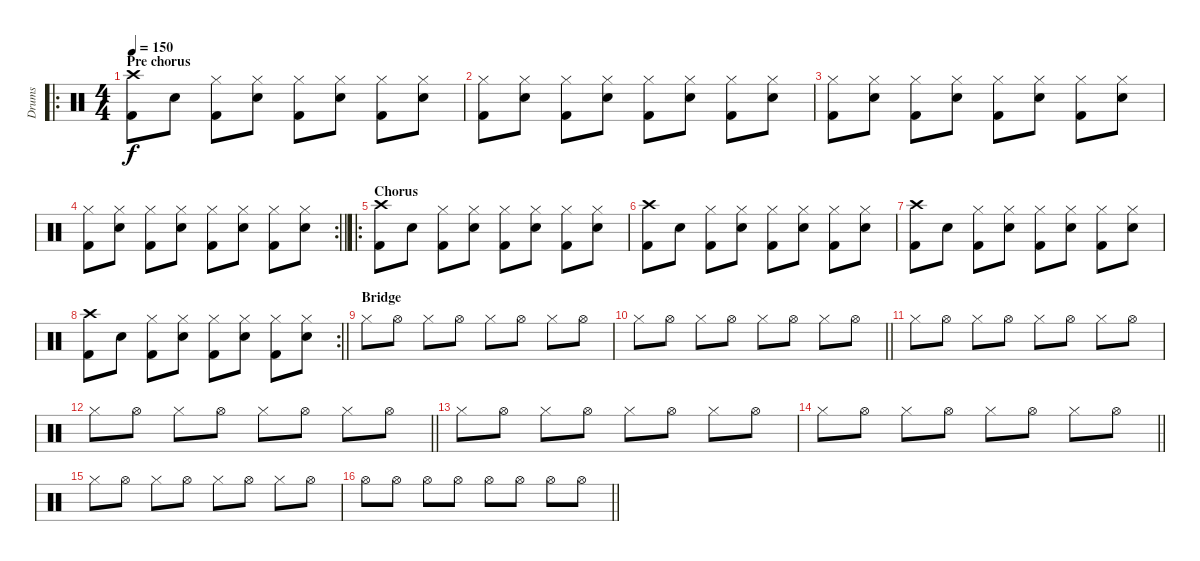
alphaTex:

\track ("Drums" "Drums") {instrument percussion}
\staff {score}
\articulation defaults
\ro
\ts (4 4)
\section ("" "Pre chorus")
\tempo 150
\clef neutral
\ks c
("Crash high (hit)" "Kick (hit) 2").8{dy f} "Electric Snare (hit)".8 ("Hi-Hat (closed)" "Kick (hit) 2").8 ("Hi-Hat (closed)" "Electric Snare (hit)").8 ("Hi-Hat (closed)" "Kick (hit) 2").8 ("Hi-Hat (closed)" "Electric Snare (hit)").8 ("Hi-Hat (closed)" "Kick (hit) 2").8 ("Hi-Hat (closed)" "Electric Snare (hit)").8 |
("Hi-Hat (closed)" "Kick (hit) 2").8 ("Hi-Hat (closed)" "Electric Snare (hit)").8 ("Hi-Hat (closed)" "Kick (hit) 2").8 ("Hi-Hat (closed)" "Electric Snare (hit)").8 ("Hi-Hat (closed)" "Kick (hit) 2").8 ("Hi-Hat (closed)" "Electric Snare (hit)").8 ("Hi-Hat (closed)" "Kick (hit) 2").8 ("Hi-Hat (closed)" "Electric Snare (hit)").8 |
("Hi-Hat (closed)" "Kick (hit) 2").8 ("Hi-Hat (closed)" "Electric Snare (hit)").8 ("Hi-Hat (closed)" "Kick (hit) 2").8 ("Hi-Hat (closed)" "Electric Snare (hit)").8 ("Hi-Hat (closed)" "Kick (hit) 2").8 ("Hi-Hat (closed)" "Electric Snare (hit)").8 ("Hi-Hat (closed)" "Kick (hit) 2").8 ("Hi-Hat (closed)" "Electric Snare (hit)").8 |
\rc 2
\barLineRight lightlight
("Hi-Hat (closed)" "Kick (hit) 2").8 ("Hi-Hat (closed)" "Electric Snare (hit)").8 ("Hi-Hat (closed)" "Kick (hit) 2").8 ("Hi-Hat (closed)" "Electric Snare (hit)").8 ("Hi-Hat (closed)" "Kick (hit) 2").8 ("Hi-Hat (closed)" "Electric Snare (hit)").8 ("Hi-Hat (closed)" "Kick (hit) 2").8 ("Hi-Hat (closed)" "Electric Snare (hit)").8 |
\ro
\section ("" "Chorus")
("Crash high (hit)" "Kick (hit) 2").8 "Electric Snare (hit)".8 ("Hi-Hat (closed)" "Kick (hit) 2").8 ("Hi-Hat (closed)" "Electric Snare (hit)").8 ("Hi-Hat (closed)" "Kick (hit) 2").8 ("Hi-Hat (closed)" "Electric Snare (hit)").8 ("Hi-Hat (closed)" "Kick (hit) 2").8 ("Hi-Hat (closed)" "Electric Snare (hit)").8 |
("Crash high (hit)" "Kick (hit) 2").8 "Electric Snare (hit)".8 ("Hi-Hat (closed)" "Kick (hit) 2").8 ("Hi-Hat (closed)" "Electric Snare (hit)").8 ("Hi-Hat (closed)" "Kick (hit) 2").8 ("Hi-Hat (closed)" "Electric Snare (hit)").8 ("Hi-Hat (closed)" "Kick (hit) 2").8 ("Hi-Hat (closed)" "Electric Snare (hit)").8 |
("Crash high (hit)" "Kick (hit) 2").8 "Electric Snare (hit)".8 ("Hi-Hat (closed)" "Kick (hit) 2").8 ("Hi-Hat (closed)" "Electric Snare (hit)").8 ("Hi-Hat (closed)" "Kick (hit) 2").8 ("Hi-Hat (closed)" "Electric Snare (hit)").8 ("Hi-Hat (closed)" "Kick (hit) 2").8 ("Hi-Hat (closed)" "Electric Snare (hit)").8 |
\rc 2
\barLineRight lightlight
("Crash high (hit)" "Kick (hit) 2").8 "Electric Snare (hit)".8 ("Hi-Hat (closed)" "Kick (hit) 2").8 ("Hi-Hat (closed)" "Electric Snare (hit)").8 ("Hi-Hat (closed)" "Kick (hit) 2").8 ("Hi-Hat (closed)" "Electric Snare (hit)").8 ("Hi-Hat (closed)" "Kick (hit) 2").8 ("Hi-Hat (closed)" "Electric Snare (hit)").8 |
\section ("" "Bridge")
"Hi-Hat (closed)".8{volume 8} "Hi-Hat (open)".8{volume 13} "Hi-Hat (closed)".8 "Hi-Hat (open)".8 "Hi-Hat (closed)".8 "Hi-Hat (open)".8 "Hi-Hat (closed)".8 "Hi-Hat (open)".8 |
\barLineRight lightlight "Hi-Hat (closed)".8 "Hi-Hat (open)".8 "Hi-Hat (closed)".8 "Hi-Hat (open)".8 "Hi-Hat (closed)".8 "Hi-Hat (open)".8 "Hi-Hat (closed)".8 "Hi-Hat (open)".8
|
"Hi-Hat (closed)".8 "Hi-Hat (open)".8 "Hi-Hat (closed)".8 "Hi-Hat (open)".8 "Hi-Hat (closed)".8 "Hi-Hat (open)".8 "Hi-Hat (closed)".8 "Hi-Hat (open)".8 |
\barLineRight lightlight "Hi-Hat (closed)".8 "Hi-Hat (open)".8 "Hi-Hat (closed)".8 "Hi-Hat (open)".8 "Hi-Hat (closed)".8 "Hi-Hat (open)".8 "Hi-Hat (closed)".8 "Hi-Hat (open)".8
|
"Hi-Hat (closed)".8 "Hi-Hat (open)".8 "Hi-Hat (closed)".8 "Hi-Hat (open)".8 "Hi-Hat (closed)".8 "Hi-Hat (open)".8 "Hi-Hat (closed)".8 "Hi-Hat (open)".8 |
\barLineRight lightlight "Hi-Hat (closed)".8 "Hi-Hat (open)".8 "Hi-Hat (closed)".8 "Hi-Hat (open)".8 "Hi-Hat (closed)".8 "Hi-Hat (open)".8 "Hi-Hat (closed)".8 "Hi-Hat (open)".8
|
"Hi-Hat (closed)".8 "Hi-Hat (open)".8 "Hi-Hat (closed)".8 "Hi-Hat (open)".8 "Hi-Hat (closed)".8 "Hi-Hat (open)".8 "Hi-Hat (closed)".8 "Hi-Hat (open)".8 |
\barLineRight lightlight "Hi-Hat (open)".8 "Hi-Hat (open)".8 "Hi-Hat (open)".8 "Hi-Hat (open)".8 "Hi-Hat (open)".8 "Hi-Hat (open)".8 "Hi-Hat (open)".8 "Hi-Hat (open)".8
